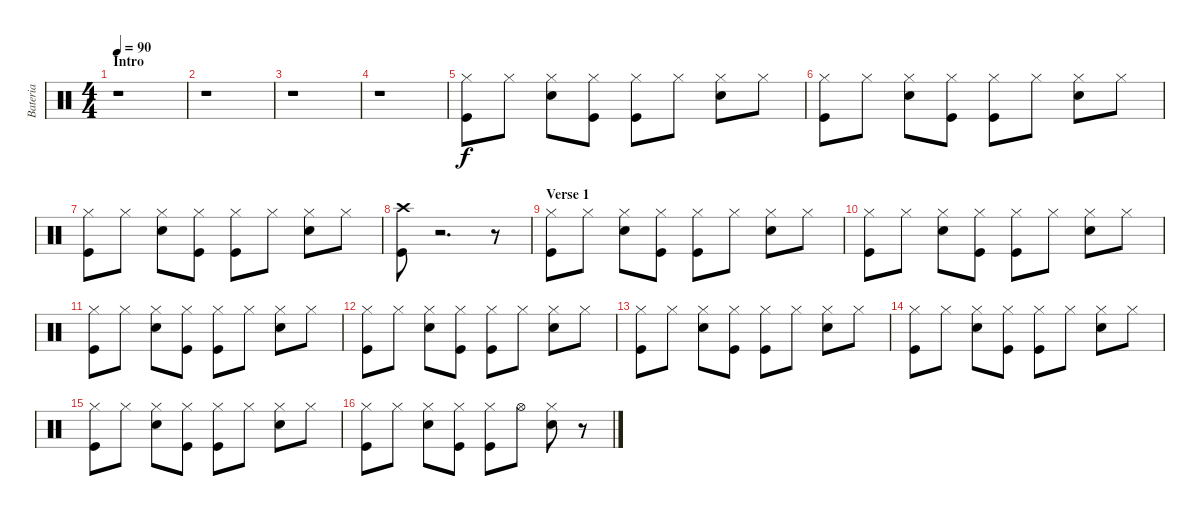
\track ("Bateria" "Bateria") {instrument percussion}
\staff {score}
\articulation defaults
\ts (4 4)
\section ("" "Intro")
\tempo 90
\clef neutral
\ks c
r.1{dy f} |
r.1 |
r.1 |
r.1 |
("Hi-Hat (closed)" "Kick (hit)").8 "Hi-Hat (closed)".8 ("Hi-Hat (closed)" "Snare (hit) 2").8 ("Hi-Hat (closed)" "Kick (hit)").8 ("Hi-Hat (closed)" "Kick (hit)").8 "Hi-Hat (closed)".8 ("Hi-Hat (closed)" "Snare (hit) 2").8 "Hi-Hat (closed)".8 |
("Hi-Hat (closed)" "Kick (hit)").8 "Hi-Hat (closed)".8 ("Hi-Hat (closed)" "Snare (hit) 2").8 ("Hi-Hat (closed)" "Kick (hit)").8 ("Hi-Hat (closed)" "Kick (hit)").8 "Hi-Hat (closed)".8 ("Hi-Hat (closed)" "Snare (hit) 2").8 "Hi-Hat (closed)".8 |
("Hi-Hat (closed)" "Kick (hit)").8 "Hi-Hat (closed)".8 ("Hi-Hat (closed)" "Snare (hit) 2").8 ("Hi-Hat (closed)" "Kick (hit)").8 ("Hi-Hat (closed)" "Kick (hit)").8 "Hi-Hat (closed)".8 ("Hi-Hat (closed)" "Snare (hit) 2").8 "Hi-Hat (closed)".8 |
("Crash high (hit)" "Kick (hit)").8 r.2{d} r.8 |
\section ("" "Verse 1")
("Hi-Hat (closed)" "Kick (hit)").8 "Hi-Hat (closed)".8 ("Hi-Hat (closed)" "Snare (hit) 2").8 ("Hi-Hat (closed)" "Kick (hit)").8 ("Hi-Hat (closed)" "Kick (hit)").8 "Hi-Hat (closed)".8 ("Hi-Hat (closed)" "Snare (hit) 2").8 "Hi-Hat (closed)".8 |
("Hi-Hat (closed)" "Kick (hit)").8 "Hi-Hat (closed)".8 ("Hi-Hat (closed)" "Snare (hit) 2").8 ("Hi-Hat (closed)" "Kick (hit)").8 ("Hi-Hat (closed)" "Kick (hit)").8 "Hi-Hat (closed)".8 ("Hi-Hat (closed)" "Snare (hit) 2").8 "Hi-Hat (closed)".8 |
("Hi-Hat (closed)" "Kick (hit)").8 "Hi-Hat (closed)".8 ("Hi-Hat (closed)" "Snare (hit) 2").8 ("Hi-Hat (closed)" "Kick (hit)").8 ("Hi-Hat (closed)" "Kick (hit)").8 "Hi-Hat (closed)".8 ("Hi-Hat (closed)" "Snare (hit) 2").8 "Hi-Hat (closed)".8 |
("Hi-Hat (closed)" "Kick (hit)").8 "Hi-Hat (closed)".8 ("Hi-Hat (closed)" "Snare (hit) 2").8 ("Hi-Hat (closed)" "Kick (hit)").8 ("Hi-Hat (closed)" "Kick (hit)").8 "Hi-Hat (closed)".8 ("Hi-Hat (closed)" "Snare (hit) 2").8 "Hi-Hat (closed)".8 |
("Hi-Hat (closed)" "Kick (hit)").8 "Hi-Hat (closed)".8 ("Hi-Hat (closed)" "Snare (hit) 2").8 ("Hi-Hat (closed)" "Kick (hit)").8 ("Hi-Hat (closed)" "Kick (hit)").8 "Hi-Hat (closed)".8 ("Hi-Hat (closed)" "Snare (hit) 2").8 "Hi-Hat (closed)".8 |
("Hi-Hat (closed)" "Kick (hit)").8 "Hi-Hat (closed)".8 ("Hi-Hat (closed)" "Snare (hit) 2").8 ("Hi-Hat (closed)" "Kick (hit)").8 ("Hi-Hat (closed)" "Kick (hit)").8 "Hi-Hat (closed)".8 ("Hi-Hat (closed)" "Snare (hit) 2").8 "Hi-Hat (closed)".8 |
("Hi-Hat (closed)" "Kick (hit)").8 "Hi-Hat (closed)".8 ("Hi-Hat (closed)" "Snare (hit) 2").8 ("Hi-Hat (closed)" "Kick (hit)").8 ("Hi-Hat (closed)" "Kick (hit)").8 "Hi-Hat (closed)".8 ("Hi-Hat (closed)" "Snare (hit) 2").8 "Hi-Hat (closed)".8 |
("Hi-Hat (closed)" "Kick (hit)").8 "Hi-Hat (closed)".8 ("Hi-Hat (closed)" "Snare (hit) 2").8 ("Hi-Hat (closed)" "Kick (hit)").8 ("Hi-Hat (closed)" "Kick (hit)").8 "Hi-Hat (open)".8 ("Hi-Hat (closed)" "Snare (hit) 2").8 r.8
